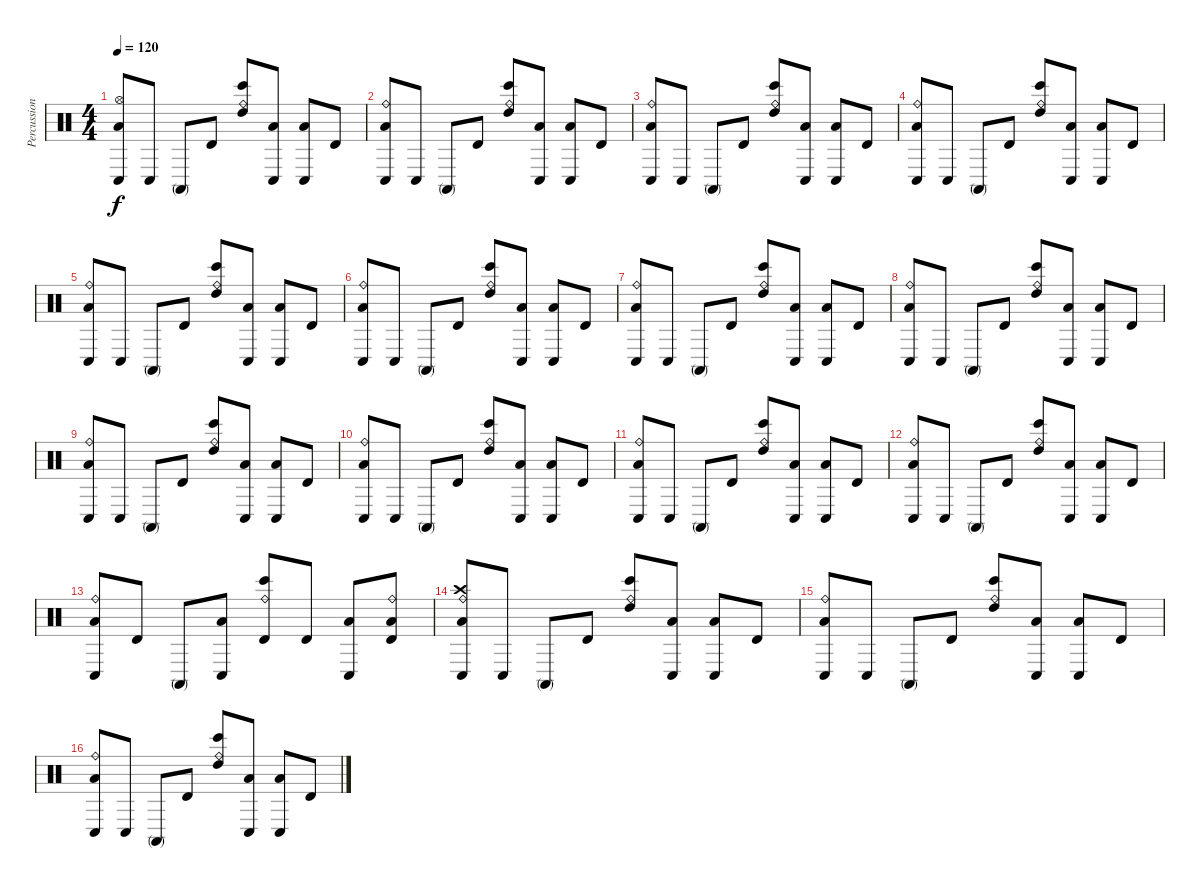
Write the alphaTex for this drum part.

\track ("Percussion" "Percussion") {instrument percussion}
\staff {score}
\articulation defaults
\ts (4 4)
\tempo 120
\clef neutral
\ks c
("Low Tom (hit)" "Conga low (hit)" "Hi-Hat (open)").8{dy f} "Conga low (hit)".8 "Conga high (mute)".8 "Timbale high (hit)".8 ("High Tom (hit)" "Bongo High (hit)" "Ride (bell)").8 ("Low Tom (hit)" "Conga low (hit)").8 ("Low Tom (hit)" "Conga low (hit)").8 "Timbale high (hit)".8 |
("Low Tom (hit)" "Conga low (hit)" "Ride (bell)").8 "Conga low (hit)".8 "Conga high (mute)".8 "Timbale high (hit)".8 ("High Tom (hit)" "Bongo High (hit)" "Ride (bell)").8 ("Low Tom (hit)" "Conga low (hit)").8 ("Low Tom (hit)" "Conga low (hit)").8 "Timbale high (hit)".8 |
("Low Tom (hit)" "Conga low (hit)" "Ride (bell)").8 "Conga low (hit)".8 "Conga high (mute)".8 "Timbale high (hit)".8 ("High Tom (hit)" "Bongo High (hit)" "Ride (bell)").8 ("Low Tom (hit)" "Conga low (hit)").8 ("Low Tom (hit)" "Conga low (hit)").8 "Timbale high (hit)".8 |
("Low Tom (hit)" "Conga low (hit)" "Ride (bell)").8 "Conga low (hit)".8 "Conga high (mute)".8 "Timbale high (hit)".8 ("High Tom (hit)" "Bongo High (hit)" "Ride (bell)").8 ("Low Tom (hit)" "Conga low (hit)").8 ("Low Tom (hit)" "Conga low (hit)").8 "Timbale high (hit)".8 |
("Low Tom (hit)" "Conga low (hit)" "Ride (bell)").8 "Conga low (hit)".8 "Conga high (mute)".8 "Timbale high (hit)".8 ("High Tom (hit)" "Bongo High (hit)" "Ride (bell)").8 ("Low Tom (hit)" "Conga low (hit)").8 ("Low Tom (hit)" "Conga low (hit)").8 "Timbale high (hit)".8 |
("Low Tom (hit)" "Conga low (hit)" "Ride (bell)").8 "Conga low (hit)".8 "Conga high (mute)".8 "Timbale high (hit)".8 ("High Tom (hit)" "Bongo High (hit)" "Ride (bell)").8 ("Low Tom (hit)" "Conga low (hit)").8 ("Low Tom (hit)" "Conga low (hit)").8 "Timbale high (hit)".8 |
("Low Tom (hit)" "Conga low (hit)" "Ride (bell)").8 "Conga low (hit)".8 "Conga high (mute)".8 "Timbale high (hit)".8 ("High Tom (hit)" "Bongo High (hit)" "Ride (bell)").8 ("Low Tom (hit)" "Conga low (hit)").8 ("Low Tom (hit)" "Conga low (hit)").8 "Timbale high (hit)".8 |
("Low Tom (hit)" "Conga low (hit)" "Ride (bell)").8 "Conga low (hit)".8 "Conga high (mute)".8 "Timbale high (hit)".8 ("High Tom (hit)" "Bongo High (hit)" "Ride (bell)").8 ("Low Tom (hit)" "Conga low (hit)").8 ("Low Tom (hit)" "Conga low (hit)").8 "Timbale high (hit)".8 |
("Low Tom (hit)" "Conga low (hit)" "Ride (bell)").8 "Conga low (hit)".8 "Conga high (mute)".8 "Timbale high (hit)".8 ("High Tom (hit)" "Bongo High (hit)" "Ride (bell)").8 ("Low Tom (hit)" "Conga low (hit)").8 ("Low Tom (hit)" "Conga low (hit)").8 "Timbale high (hit)".8 |
("Low Tom (hit)" "Conga low (hit)" "Ride (bell)").8 "Conga low (hit)".8 "Conga high (mute)".8 "Timbale high (hit)".8 ("High Tom (hit)" "Bongo High (hit)" "Ride (bell)").8 ("Low Tom (hit)" "Conga low (hit)").8 ("Low Tom (hit)" "Conga low (hit)").8 "Timbale high (hit)".8 |
("Low Tom (hit)" "Conga low (hit)" "Ride (bell)").8 "Conga low (hit)".8 "Conga high (mute)".8 "Timbale high (hit)".8 ("High Tom (hit)" "Bongo High (hit)" "Ride (bell)").8 ("Low Tom (hit)" "Conga low (hit)").8 ("Low Tom (hit)" "Conga low (hit)").8 "Timbale high (hit)".8 |
("Low Tom (hit)" "Conga low (hit)" "Ride (bell)").8 "Conga low (hit)".8 "Conga high (mute)".8 "Timbale high (hit)".8 ("High Tom (hit)" "Bongo High (hit)" "Ride (bell)").8 ("Low Tom (hit)" "Conga low (hit)").8 ("Low Tom (hit)" "Conga low (hit)").8 "Timbale high (hit)".8 |
("Low Tom (hit)" "Conga low (hit)" "Ride (bell)").8 "Timbale high (hit)".8 "Conga high (mute)".8 ("Low Tom (hit)" "Conga low (hit)").8 ("Timbale high (hit)" "Bongo High (hit)" "Ride (bell)").8 "Timbale high (hit)".8 ("Low Tom (hit)" "Conga low (hit)").8 ("Low Tom (hit)" "Timbale high (hit)" "Ride (bell)").8 |
("Low Tom (hit)" "Conga low (hit)" "Ride (bell)" "Crash high (hit)").8 "Conga low (hit)".8 "Conga high (mute)".8 "Timbale high (hit)".8 ("High Tom (hit)" "Bongo High (hit)" "Ride (bell)").8 ("Low Tom (hit)" "Conga low (hit)").8 ("Low Tom (hit)" "Conga low (hit)").8 "Timbale high (hit)".8 |
("Low Tom (hit)" "Conga low (hit)" "Ride (bell)").8 "Conga low (hit)".8 "Conga high (mute)".8 "Timbale high (hit)".8 ("High Tom (hit)" "Bongo High (hit)" "Ride (bell)").8 ("Low Tom (hit)" "Conga low (hit)").8 ("Low Tom (hit)" "Conga low (hit)").8 "Timbale high (hit)".8 |
("Low Tom (hit)" "Conga low (hit)" "Ride (bell)").8 "Conga low (hit)".8 "Conga high (mute)".8 "Timbale high (hit)".8 ("High Tom (hit)" "Bongo High (hit)" "Ride (bell)").8 ("Low Tom (hit)" "Conga low (hit)").8 ("Low Tom (hit)" "Conga low (hit)").8 "Timbale high (hit)".8
